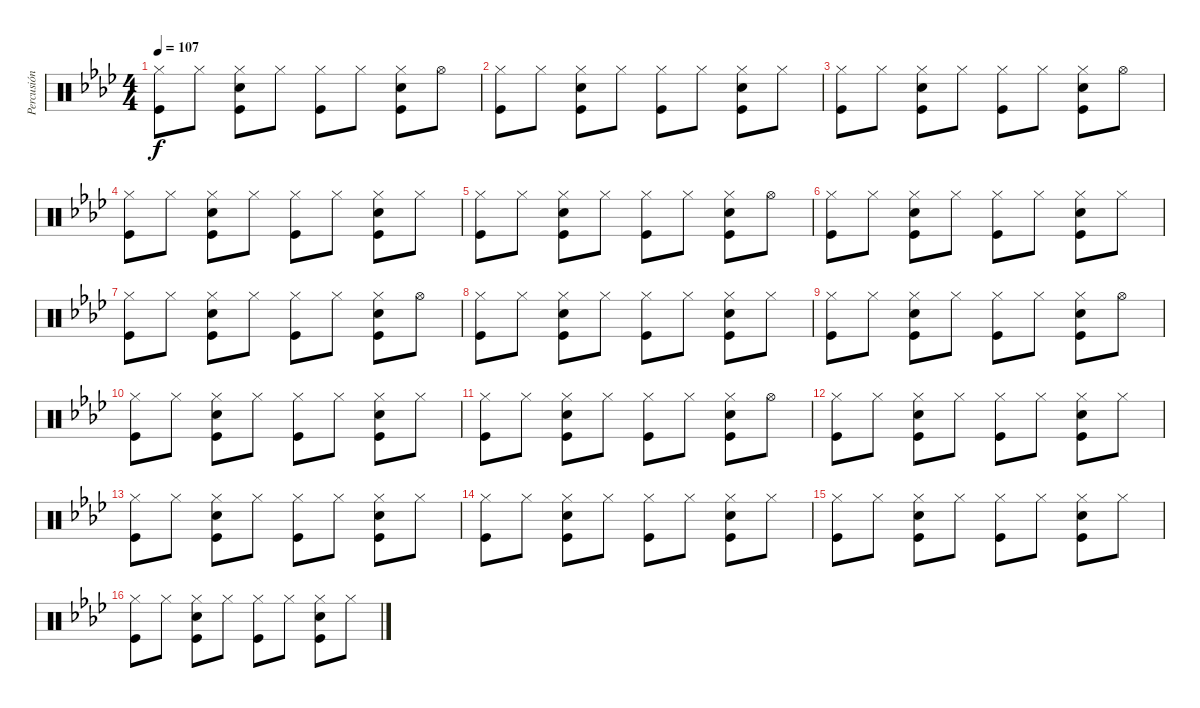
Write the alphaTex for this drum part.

\track ("Percusión" "Percusión") {instrument percussion}
\staff {score}
\articulation defaults
\ts (4 4)
\tempo 107
\clef neutral
\ks ab
("Hi-Hat (closed)" "Kick (hit)").8{dy f} "Hi-Hat (closed)".8 ("Hi-Hat (closed)" "Snare (hit) 2" "Kick (hit)").8 "Hi-Hat (closed)".8 ("Hi-Hat (closed)" "Kick (hit)").8 "Hi-Hat (closed)".8 ("Hi-Hat (closed)" "Snare (hit) 2" "Kick (hit)").8 "Hi-Hat (open)".8 |
("Hi-Hat (closed)" "Kick (hit)").8 "Hi-Hat (closed)".8 ("Hi-Hat (closed)" "Snare (hit) 2" "Kick (hit)").8 "Hi-Hat (closed)".8 ("Hi-Hat (closed)" "Kick (hit)").8 "Hi-Hat (closed)".8 ("Hi-Hat (closed)" "Snare (hit) 2" "Kick (hit)").8 "Hi-Hat (closed)".8 |
("Hi-Hat (closed)" "Kick (hit)").8 "Hi-Hat (closed)".8 ("Hi-Hat (closed)" "Snare (hit) 2" "Kick (hit)").8 "Hi-Hat (closed)".8 ("Hi-Hat (closed)" "Kick (hit)").8 "Hi-Hat (closed)".8 ("Hi-Hat (closed)" "Snare (hit) 2" "Kick (hit)").8 "Hi-Hat (open)".8 |
("Hi-Hat (closed)" "Kick (hit)").8 "Hi-Hat (closed)".8 ("Hi-Hat (closed)" "Snare (hit) 2" "Kick (hit)").8 "Hi-Hat (closed)".8 ("Hi-Hat (closed)" "Kick (hit)").8 "Hi-Hat (closed)".8 ("Hi-Hat (closed)" "Snare (hit) 2" "Kick (hit)").8 "Hi-Hat (closed)".8 |
("Hi-Hat (closed)" "Kick (hit)").8 "Hi-Hat (closed)".8 ("Hi-Hat (closed)" "Snare (hit) 2" "Kick (hit)").8 "Hi-Hat (closed)".8 ("Hi-Hat (closed)" "Kick (hit)").8 "Hi-Hat (closed)".8 ("Hi-Hat (closed)" "Snare (hit) 2" "Kick (hit)").8 "Hi-Hat (open)".8 |
("Hi-Hat (closed)" "Kick (hit)").8 "Hi-Hat (closed)".8 ("Hi-Hat (closed)" "Snare (hit) 2" "Kick (hit)").8 "Hi-Hat (closed)".8 ("Hi-Hat (closed)" "Kick (hit)").8 "Hi-Hat (closed)".8 ("Hi-Hat (closed)" "Snare (hit) 2" "Kick (hit)").8 "Hi-Hat (closed)".8 |
("Hi-Hat (closed)" "Kick (hit)").8 "Hi-Hat (closed)".8 ("Hi-Hat (closed)" "Snare (hit) 2" "Kick (hit)").8 "Hi-Hat (closed)".8 ("Hi-Hat (closed)" "Kick (hit)").8 "Hi-Hat (closed)".8 ("Hi-Hat (closed)" "Snare (hit) 2" "Kick (hit)").8 "Hi-Hat (open)".8 |
("Hi-Hat (closed)" "Kick (hit)").8 "Hi-Hat (closed)".8 ("Hi-Hat (closed)" "Snare (hit) 2" "Kick (hit)").8 "Hi-Hat (closed)".8 ("Hi-Hat (closed)" "Kick (hit)").8 "Hi-Hat (closed)".8 ("Hi-Hat (closed)" "Snare (hit) 2" "Kick (hit)").8 "Hi-Hat (closed)".8 |
("Hi-Hat (closed)" "Kick (hit)").8 "Hi-Hat (closed)".8 ("Hi-Hat (closed)" "Snare (hit) 2" "Kick (hit)").8 "Hi-Hat (closed)".8 ("Hi-Hat (closed)" "Kick (hit)").8 "Hi-Hat (closed)".8 ("Hi-Hat (closed)" "Snare (hit) 2" "Kick (hit)").8 "Hi-Hat (open)".8 |
("Hi-Hat (closed)" "Kick (hit)").8 "Hi-Hat (closed)".8 ("Hi-Hat (closed)" "Snare (hit) 2" "Kick (hit)").8 "Hi-Hat (closed)".8 ("Hi-Hat (closed)" "Kick (hit)").8 "Hi-Hat (closed)".8 ("Hi-Hat (closed)" "Snare (hit) 2" "Kick (hit)").8 "Hi-Hat (closed)".8 |
("Hi-Hat (closed)" "Kick (hit)").8 "Hi-Hat (closed)".8 ("Hi-Hat (closed)" "Snare (hit) 2" "Kick (hit)").8 "Hi-Hat (closed)".8 ("Hi-Hat (closed)" "Kick (hit)").8 "Hi-Hat (closed)".8 ("Hi-Hat (closed)" "Snare (hit) 2" "Kick (hit)").8 "Hi-Hat (open)".8 |
("Hi-Hat (closed)" "Kick (hit)").8 "Hi-Hat (closed)".8 ("Hi-Hat (closed)" "Snare (hit) 2" "Kick (hit)").8 "Hi-Hat (closed)".8 ("Hi-Hat (closed)" "Kick (hit)").8 "Hi-Hat (closed)".8 ("Hi-Hat (closed)" "Snare (hit) 2" "Kick (hit)").8 "Hi-Hat (closed)".8 |
("Hi-Hat (closed)" "Kick (hit)").8 "Hi-Hat (closed)".8 ("Hi-Hat (closed)" "Snare (hit) 2" "Kick (hit)").8 "Hi-Hat (closed)".8 ("Hi-Hat (closed)" "Kick (hit)").8 "Hi-Hat (closed)".8 ("Hi-Hat (closed)" "Snare (hit) 2" "Kick (hit)").8 "Hi-Hat (closed)".8 |
("Hi-Hat (closed)" "Kick (hit)").8 "Hi-Hat (closed)".8 ("Hi-Hat (closed)" "Snare (hit) 2" "Kick (hit)").8 "Hi-Hat (closed)".8 ("Hi-Hat (closed)" "Kick (hit)").8 "Hi-Hat (closed)".8 ("Hi-Hat (closed)" "Snare (hit) 2" "Kick (hit)").8 "Hi-Hat (closed)".8 |
("Hi-Hat (closed)" "Kick (hit)").8 "Hi-Hat (closed)".8 ("Hi-Hat (closed)" "Snare (hit) 2" "Kick (hit)").8 "Hi-Hat (closed)".8 ("Hi-Hat (closed)" "Kick (hit)").8 "Hi-Hat (closed)".8 ("Hi-Hat (closed)" "Snare (hit) 2" "Kick (hit)").8 "Hi-Hat (closed)".8 |
("Hi-Hat (closed)" "Kick (hit)").8 "Hi-Hat (closed)".8 ("Hi-Hat (closed)" "Snare (hit) 2" "Kick (hit)").8 "Hi-Hat (closed)".8 ("Hi-Hat (closed)" "Kick (hit)").8 "Hi-Hat (closed)".8 ("Hi-Hat (closed)" "Snare (hit) 2" "Kick (hit)").8 "Hi-Hat (closed)".8
